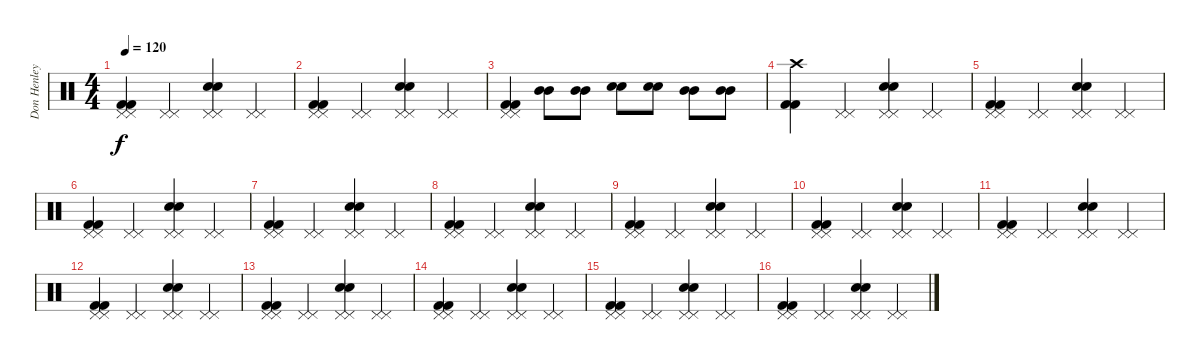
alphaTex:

\track ("Don Henley (Drums)" "Don Henley") {instrument percussion}
\staff {score}
\articulation defaults
\ts (4 4)
\tempo 120
\clef neutral
\ks c
("Pedal Hi-Hat (hit)" "Pedal Hi-Hat (hit)" "Kick (hit) 2" "Kick (hit) 2").4{dy f} ("Pedal Hi-Hat (hit)" "Pedal Hi-Hat (hit)").4 ("Pedal Hi-Hat (hit)" "Pedal Hi-Hat (hit)" "Electric Snare (hit)" "Electric Snare (hit)").4 ("Pedal Hi-Hat (hit)" "Pedal Hi-Hat (hit)").4 |
("Pedal Hi-Hat (hit)" "Pedal Hi-Hat (hit)" "Kick (hit) 2" "Kick (hit) 2").4 ("Pedal Hi-Hat (hit)" "Pedal Hi-Hat (hit)").4 ("Pedal Hi-Hat (hit)" "Pedal Hi-Hat (hit)" "Electric Snare (hit)" "Electric Snare (hit)").4 ("Pedal Hi-Hat (hit)" "Pedal Hi-Hat (hit)").4 |
("Pedal Hi-Hat (hit)" "Pedal Hi-Hat (hit)" "Kick (hit) 2" "Kick (hit) 2").4 ("Mid Tom (hit)" "Mid Tom (hit)").8 ("Mid Tom (hit)" "Mid Tom (hit)").8 ("Electric Snare (hit)" "Electric Snare (hit)").8 ("Electric Snare (hit)" "Electric Snare (hit)").8 ("Mid Tom (hit)" "Mid Tom (hit)").8 ("Mid Tom (hit)" "Mid Tom (hit)").8 |
("Crash high (hit)" "Kick (hit) 2" "Kick (hit) 2").4 ("Pedal Hi-Hat (hit)" "Pedal Hi-Hat (hit)").4 ("Pedal Hi-Hat (hit)" "Pedal Hi-Hat (hit)" "Electric Snare (hit)" "Electric Snare (hit)").4 ("Pedal Hi-Hat (hit)" "Pedal Hi-Hat (hit)").4 |
("Pedal Hi-Hat (hit)" "Pedal Hi-Hat (hit)" "Kick (hit) 2" "Kick (hit) 2").4 ("Pedal Hi-Hat (hit)" "Pedal Hi-Hat (hit)").4 ("Pedal Hi-Hat (hit)" "Pedal Hi-Hat (hit)" "Electric Snare (hit)" "Electric Snare (hit)").4 ("Pedal Hi-Hat (hit)" "Pedal Hi-Hat (hit)").4 |
("Pedal Hi-Hat (hit)" "Pedal Hi-Hat (hit)" "Kick (hit) 2" "Kick (hit) 2").4 ("Pedal Hi-Hat (hit)" "Pedal Hi-Hat (hit)").4 ("Pedal Hi-Hat (hit)" "Pedal Hi-Hat (hit)" "Electric Snare (hit)" "Electric Snare (hit)").4 ("Pedal Hi-Hat (hit)" "Pedal Hi-Hat (hit)").4 |
("Pedal Hi-Hat (hit)" "Pedal Hi-Hat (hit)" "Kick (hit) 2" "Kick (hit) 2").4 ("Pedal Hi-Hat (hit)" "Pedal Hi-Hat (hit)").4 ("Pedal Hi-Hat (hit)" "Pedal Hi-Hat (hit)" "Electric Snare (hit)" "Electric Snare (hit)").4 ("Pedal Hi-Hat (hit)" "Pedal Hi-Hat (hit)").4 |
("Pedal Hi-Hat (hit)" "Pedal Hi-Hat (hit)" "Kick (hit) 2" "Kick (hit) 2").4 ("Pedal Hi-Hat (hit)" "Pedal Hi-Hat (hit)").4 ("Pedal Hi-Hat (hit)" "Pedal Hi-Hat (hit)" "Electric Snare (hit)" "Electric Snare (hit)").4 ("Pedal Hi-Hat (hit)" "Pedal Hi-Hat (hit)").4 |
("Pedal Hi-Hat (hit)" "Pedal Hi-Hat (hit)" "Kick (hit) 2" "Kick (hit) 2").4 ("Pedal Hi-Hat (hit)" "Pedal Hi-Hat (hit)").4 ("Pedal Hi-Hat (hit)" "Pedal Hi-Hat (hit)" "Electric Snare (hit)" "Electric Snare (hit)").4 ("Pedal Hi-Hat (hit)" "Pedal Hi-Hat (hit)").4 |
("Pedal Hi-Hat (hit)" "Pedal Hi-Hat (hit)" "Kick (hit) 2" "Kick (hit) 2").4 ("Pedal Hi-Hat (hit)" "Pedal Hi-Hat (hit)").4 ("Pedal Hi-Hat (hit)" "Pedal Hi-Hat (hit)" "Electric Snare (hit)" "Electric Snare (hit)").4 ("Pedal Hi-Hat (hit)" "Pedal Hi-Hat (hit)").4 |
("Pedal Hi-Hat (hit)" "Pedal Hi-Hat (hit)" "Kick (hit) 2" "Kick (hit) 2").4 ("Pedal Hi-Hat (hit)" "Pedal Hi-Hat (hit)").4 ("Pedal Hi-Hat (hit)" "Pedal Hi-Hat (hit)" "Electric Snare (hit)" "Electric Snare (hit)").4 ("Pedal Hi-Hat (hit)" "Pedal Hi-Hat (hit)").4 |
("Pedal Hi-Hat (hit)" "Pedal Hi-Hat (hit)" "Kick (hit) 2" "Kick (hit) 2").4 ("Pedal Hi-Hat (hit)" "Pedal Hi-Hat (hit)").4 ("Pedal Hi-Hat (hit)" "Pedal Hi-Hat (hit)" "Electric Snare (hit)" "Electric Snare (hit)").4 ("Pedal Hi-Hat (hit)" "Pedal Hi-Hat (hit)").4 |
("Pedal Hi-Hat (hit)" "Pedal Hi-Hat (hit)" "Kick (hit) 2" "Kick (hit) 2").4 ("Pedal Hi-Hat (hit)" "Pedal Hi-Hat (hit)").4 ("Pedal Hi-Hat (hit)" "Pedal Hi-Hat (hit)" "Electric Snare (hit)" "Electric Snare (hit)").4 ("Pedal Hi-Hat (hit)" "Pedal Hi-Hat (hit)").4 |
("Pedal Hi-Hat (hit)" "Pedal Hi-Hat (hit)" "Kick (hit) 2" "Kick (hit) 2").4 ("Pedal Hi-Hat (hit)" "Pedal Hi-Hat (hit)").4 ("Pedal Hi-Hat (hit)" "Pedal Hi-Hat (hit)" "Electric Snare (hit)" "Electric Snare (hit)").4 ("Pedal Hi-Hat (hit)" "Pedal Hi-Hat (hit)").4 |
("Pedal Hi-Hat (hit)" "Pedal Hi-Hat (hit)" "Kick (hit) 2" "Kick (hit) 2").4 ("Pedal Hi-Hat (hit)" "Pedal Hi-Hat (hit)").4 ("Pedal Hi-Hat (hit)" "Pedal Hi-Hat (hit)" "Electric Snare (hit)" "Electric Snare (hit)").4 ("Pedal Hi-Hat (hit)" "Pedal Hi-Hat (hit)").4 |
("Pedal Hi-Hat (hit)" "Pedal Hi-Hat (hit)" "Kick (hit) 2" "Kick (hit) 2").4 ("Pedal Hi-Hat (hit)" "Pedal Hi-Hat (hit)").4 ("Pedal Hi-Hat (hit)" "Pedal Hi-Hat (hit)" "Electric Snare (hit)" "Electric Snare (hit)").4 ("Pedal Hi-Hat (hit)" "Pedal Hi-Hat (hit)").4
